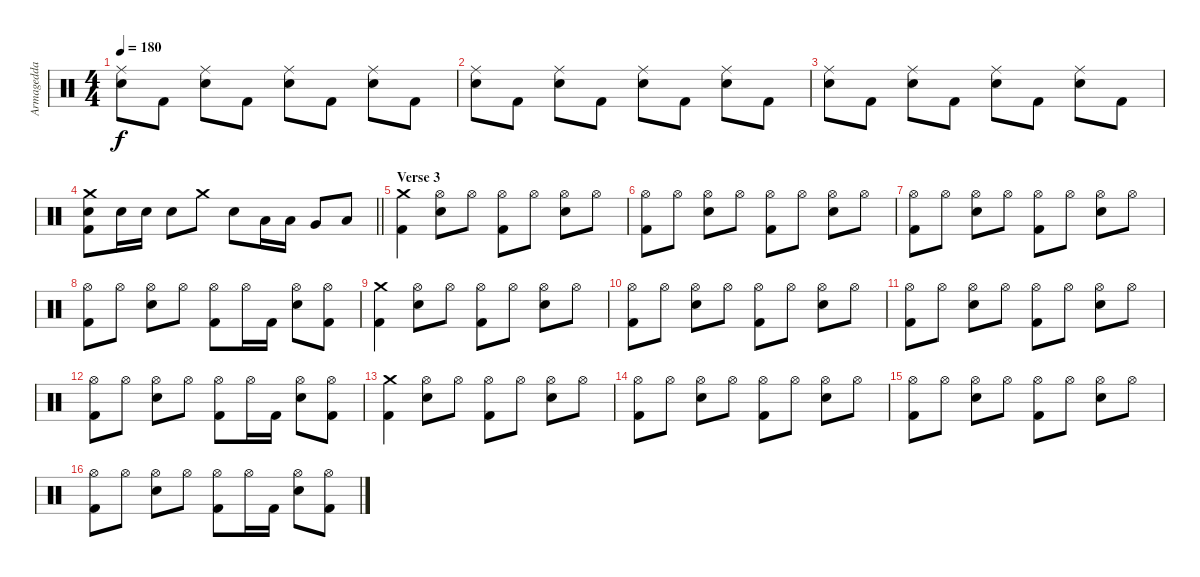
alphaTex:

\track ("Armagedda" "Armagedda") {instrument percussion}
\staff {score}
\articulation defaults
\ts (4 4)
\tempo 180
\clef neutral
\ks c
("Ride (middle)" "Electric Snare (hit)").8{dy f} "Kick (hit) 2".8 ("Ride (middle)" "Electric Snare (hit)").8 "Kick (hit) 2".8 ("Ride (middle)" "Electric Snare (hit)").8 "Kick (hit) 2".8 ("Ride (middle)" "Electric Snare (hit)").8 "Kick (hit) 2".8 |
("Ride (middle)" "Electric Snare (hit)").8 "Kick (hit) 2".8 ("Ride (middle)" "Electric Snare (hit)").8 "Kick (hit) 2".8 ("Ride (middle)" "Electric Snare (hit)").8 "Kick (hit) 2".8 ("Ride (middle)" "Electric Snare (hit)").8 "Kick (hit) 2".8 |
("Ride (middle)" "Electric Snare (hit)").8 "Kick (hit) 2".8 ("Ride (middle)" "Electric Snare (hit)").8 "Kick (hit) 2".8 ("Ride (middle)" "Electric Snare (hit)").8 "Kick (hit) 2".8 ("Ride (middle)" "Electric Snare (hit)").8 "Kick (hit) 2".8 |
\barLineRight lightlight
("Crash medium (hit)" "Electric Snare (hit)" "Kick (hit) 2").8 "Electric Snare (hit)".16 "Electric Snare (hit)".16 "Electric Snare (hit)".8 "Crash medium (hit)".8 "Electric Snare (hit)".8 "Low Tom (hit)".16 "Low Tom (hit)".16 "Very Low Tom (hit)".8 "Low Floor Tom (hit)".8 |
\section ("" "Verse 3")
("Crash medium (hit)" "Kick (hit) 2").4 ("Hi-Hat (open)" "Electric Snare (hit)").8 "Hi-Hat (open)".8 ("Hi-Hat (open)" "Kick (hit) 2").8 "Hi-Hat (open)".8 ("Hi-Hat (open)" "Electric Snare (hit)").8 "Hi-Hat (open)".8 |
("Hi-Hat (open)" "Kick (hit) 2").8 "Hi-Hat (open)".8 ("Hi-Hat (open)" "Electric Snare (hit)").8 "Hi-Hat (open)".8 ("Hi-Hat (open)" "Kick (hit) 2").8 "Hi-Hat (open)".8 ("Hi-Hat (open)" "Electric Snare (hit)").8 "Hi-Hat (open)".8 |
("Hi-Hat (open)" "Kick (hit) 2").8 "Hi-Hat (open)".8 ("Hi-Hat (open)" "Electric Snare (hit)").8 "Hi-Hat (open)".8 ("Hi-Hat (open)" "Kick (hit) 2").8 "Hi-Hat (open)".8 ("Hi-Hat (open)" "Electric Snare (hit)").8 "Hi-Hat (open)".8 |
("Hi-Hat (open)" "Kick (hit) 2").8 "Hi-Hat (open)".8 ("Hi-Hat (open)" "Electric Snare (hit)").8 "Hi-Hat (open)".8 ("Hi-Hat (open)" "Kick (hit) 2").8 "Hi-Hat (open)".16 "Kick (hit) 2".16 ("Hi-Hat (open)" "Electric Snare (hit)").8 ("Hi-Hat (open)" "Kick (hit) 2").8 |
("Crash medium (hit)" "Kick (hit) 2").4 ("Hi-Hat (open)" "Electric Snare (hit)").8 "Hi-Hat (open)".8 ("Hi-Hat (open)" "Kick (hit) 2").8 "Hi-Hat (open)".8 ("Hi-Hat (open)" "Electric Snare (hit)").8 "Hi-Hat (open)".8 |
("Hi-Hat (open)" "Kick (hit) 2").8 "Hi-Hat (open)".8 ("Hi-Hat (open)" "Electric Snare (hit)").8 "Hi-Hat (open)".8 ("Hi-Hat (open)" "Kick (hit) 2").8 "Hi-Hat (open)".8 ("Hi-Hat (open)" "Electric Snare (hit)").8 "Hi-Hat (open)".8 |
("Hi-Hat (open)" "Kick (hit) 2").8 "Hi-Hat (open)".8 ("Hi-Hat (open)" "Electric Snare (hit)").8 "Hi-Hat (open)".8 ("Hi-Hat (open)" "Kick (hit) 2").8 "Hi-Hat (open)".8 ("Hi-Hat (open)" "Electric Snare (hit)").8 "Hi-Hat (open)".8 |
("Hi-Hat (open)" "Kick (hit) 2").8 "Hi-Hat (open)".8 ("Hi-Hat (open)" "Electric Snare (hit)").8 "Hi-Hat (open)".8 ("Hi-Hat (open)" "Kick (hit) 2").8 "Hi-Hat (open)".16 "Kick (hit) 2".16 ("Hi-Hat (open)" "Electric Snare (hit)").8 ("Hi-Hat (open)" "Kick (hit) 2").8 |
("Crash medium (hit)" "Kick (hit) 2").4 ("Hi-Hat (open)" "Electric Snare (hit)").8 "Hi-Hat (open)".8 ("Hi-Hat (open)" "Kick (hit) 2").8 "Hi-Hat (open)".8 ("Hi-Hat (open)" "Electric Snare (hit)").8 "Hi-Hat (open)".8 |
("Hi-Hat (open)" "Kick (hit) 2").8 "Hi-Hat (open)".8 ("Hi-Hat (open)" "Electric Snare (hit)").8 "Hi-Hat (open)".8 ("Hi-Hat (open)" "Kick (hit) 2").8 "Hi-Hat (open)".8 ("Hi-Hat (open)" "Electric Snare (hit)").8 "Hi-Hat (open)".8 |
("Hi-Hat (open)" "Kick (hit) 2").8 "Hi-Hat (open)".8 ("Hi-Hat (open)" "Electric Snare (hit)").8 "Hi-Hat (open)".8 ("Hi-Hat (open)" "Kick (hit) 2").8 "Hi-Hat (open)".8 ("Hi-Hat (open)" "Electric Snare (hit)").8 "Hi-Hat (open)".8 |
("Hi-Hat (open)" "Kick (hit) 2").8 "Hi-Hat (open)".8 ("Hi-Hat (open)" "Electric Snare (hit)").8 "Hi-Hat (open)".8 ("Hi-Hat (open)" "Kick (hit) 2").8 "Hi-Hat (open)".16 "Kick (hit) 2".16 ("Hi-Hat (open)" "Electric Snare (hit)").8 ("Hi-Hat (open)" "Kick (hit) 2").8
